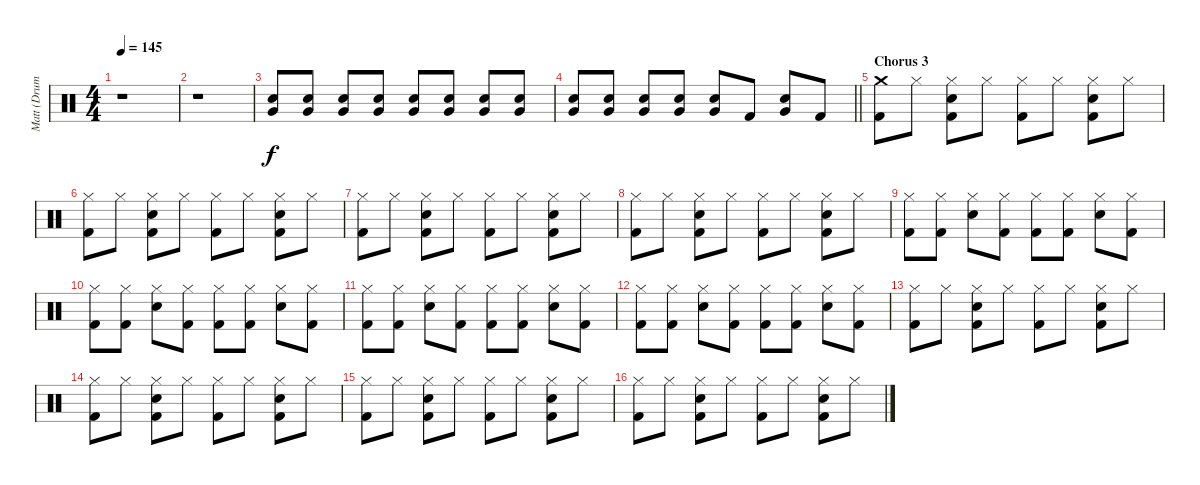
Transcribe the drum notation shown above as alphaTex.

\track ("Matt (Drums)" "Matt (Drum") {instrument percussion}
\staff {score}
\articulation defaults
\ts (4 4)
\tempo 145
\clef neutral
\ks c
r.1{dy f} |
r.1{volume 2} |
("Very Low Tom (hit)" "Electric Snare (hit)").8{volume 13} ("Very Low Tom (hit)" "Electric Snare (hit)").8 ("Very Low Tom (hit)" "Electric Snare (hit)").8 ("Very Low Tom (hit)" "Electric Snare (hit)").8 ("Very Low Tom (hit)" "Electric Snare (hit)").8 ("Very Low Tom (hit)" "Electric Snare (hit)").8 ("Very Low Tom (hit)" "Electric Snare (hit)").8 ("Very Low Tom (hit)" "Electric Snare (hit)").8 |
\barLineRight lightlight
("Very Low Tom (hit)" "Electric Snare (hit)").8 ("Very Low Tom (hit)" "Electric Snare (hit)").8 ("Very Low Tom (hit)" "Electric Snare (hit)").8 ("Very Low Tom (hit)" "Electric Snare (hit)").8 ("Very Low Tom (hit)" "Electric Snare (hit)").8 "Kick (hit) 2".8 ("Very Low Tom (hit)" "Electric Snare (hit)").8 "Kick (hit) 2".8 |
\section ("" "Chorus 3")
("Crash medium (hit)" "Kick (hit) 2").8 "Hi-Hat (closed)".8 ("Hi-Hat (closed)" "Electric Snare (hit)" "Kick (hit) 2").8 "Hi-Hat (closed)".8 ("Hi-Hat (closed)" "Kick (hit) 2").8 "Hi-Hat (closed)".8 ("Hi-Hat (closed)" "Electric Snare (hit)" "Kick (hit) 2").8 "Hi-Hat (closed)".8 |
("Hi-Hat (closed)" "Kick (hit) 2").8 "Hi-Hat (closed)".8 ("Hi-Hat (closed)" "Electric Snare (hit)" "Kick (hit) 2").8 "Hi-Hat (closed)".8 ("Hi-Hat (closed)" "Kick (hit) 2").8 "Hi-Hat (closed)".8 ("Hi-Hat (closed)" "Electric Snare (hit)" "Kick (hit) 2").8 "Hi-Hat (closed)".8 |
("Hi-Hat (closed)" "Kick (hit) 2").8 "Hi-Hat (closed)".8 ("Hi-Hat (closed)" "Electric Snare (hit)" "Kick (hit) 2").8 "Hi-Hat (closed)".8 ("Hi-Hat (closed)" "Kick (hit) 2").8 "Hi-Hat (closed)".8 ("Hi-Hat (closed)" "Electric Snare (hit)" "Kick (hit) 2").8 "Hi-Hat (closed)".8 |
("Hi-Hat (closed)" "Kick (hit) 2").8 "Hi-Hat (closed)".8 ("Hi-Hat (closed)" "Electric Snare (hit)" "Kick (hit) 2").8 "Hi-Hat (closed)".8 ("Hi-Hat (closed)" "Kick (hit) 2").8 "Hi-Hat (closed)".8 ("Hi-Hat (closed)" "Electric Snare (hit)" "Kick (hit) 2").8 "Hi-Hat (closed)".8 |
("Hi-Hat (closed)" "Kick (hit) 2").8 ("Hi-Hat (closed)" "Kick (hit) 2").8 ("Hi-Hat (closed)" "Electric Snare (hit)").8 ("Hi-Hat (closed)" "Kick (hit) 2").8 ("Hi-Hat (closed)" "Kick (hit) 2").8 ("Hi-Hat (closed)" "Kick (hit) 2").8 ("Hi-Hat (closed)" "Electric Snare (hit)").8 ("Hi-Hat (closed)" "Kick (hit) 2").8 |
("Hi-Hat (closed)" "Kick (hit) 2").8 ("Hi-Hat (closed)" "Kick (hit) 2").8 ("Hi-Hat (closed)" "Electric Snare (hit)").8 ("Hi-Hat (closed)" "Kick (hit) 2").8 ("Hi-Hat (closed)" "Kick (hit) 2").8 ("Hi-Hat (closed)" "Kick (hit) 2").8 ("Hi-Hat (closed)" "Electric Snare (hit)").8 ("Hi-Hat (closed)" "Kick (hit) 2").8 |
("Hi-Hat (closed)" "Kick (hit) 2").8 ("Hi-Hat (closed)" "Kick (hit) 2").8 ("Hi-Hat (closed)" "Electric Snare (hit)").8 ("Hi-Hat (closed)" "Kick (hit) 2").8 ("Hi-Hat (closed)" "Kick (hit) 2").8 ("Hi-Hat (closed)" "Kick (hit) 2").8 ("Hi-Hat (closed)" "Electric Snare (hit)").8 ("Hi-Hat (closed)" "Kick (hit) 2").8 |
("Hi-Hat (closed)" "Kick (hit) 2").8 ("Hi-Hat (closed)" "Kick (hit) 2").8 ("Hi-Hat (closed)" "Electric Snare (hit)").8 ("Hi-Hat (closed)" "Kick (hit) 2").8 ("Hi-Hat (closed)" "Kick (hit) 2").8 ("Hi-Hat (closed)" "Kick (hit) 2").8 ("Hi-Hat (closed)" "Electric Snare (hit)").8 ("Hi-Hat (closed)" "Kick (hit) 2").8 |
("Hi-Hat (closed)" "Kick (hit) 2").8 "Hi-Hat (closed)".8 ("Hi-Hat (closed)" "Electric Snare (hit)" "Kick (hit) 2").8 "Hi-Hat (closed)".8 ("Hi-Hat (closed)" "Kick (hit) 2").8 "Hi-Hat (closed)".8 ("Hi-Hat (closed)" "Electric Snare (hit)" "Kick (hit) 2").8 "Hi-Hat (closed)".8 |
("Hi-Hat (closed)" "Kick (hit) 2").8 "Hi-Hat (closed)".8 ("Hi-Hat (closed)" "Electric Snare (hit)" "Kick (hit) 2").8 "Hi-Hat (closed)".8 ("Hi-Hat (closed)" "Kick (hit) 2").8 "Hi-Hat (closed)".8 ("Hi-Hat (closed)" "Electric Snare (hit)" "Kick (hit) 2").8 "Hi-Hat (closed)".8 |
("Hi-Hat (closed)" "Kick (hit) 2").8 "Hi-Hat (closed)".8 ("Hi-Hat (closed)" "Electric Snare (hit)" "Kick (hit) 2").8 "Hi-Hat (closed)".8 ("Hi-Hat (closed)" "Kick (hit) 2").8 "Hi-Hat (closed)".8 ("Hi-Hat (closed)" "Electric Snare (hit)" "Kick (hit) 2").8 "Hi-Hat (closed)".8 |
("Hi-Hat (closed)" "Kick (hit) 2").8 "Hi-Hat (closed)".8 ("Hi-Hat (closed)" "Electric Snare (hit)" "Kick (hit) 2").8 "Hi-Hat (closed)".8 ("Hi-Hat (closed)" "Kick (hit) 2").8 "Hi-Hat (closed)".8 ("Hi-Hat (closed)" "Electric Snare (hit)" "Kick (hit) 2").8 "Hi-Hat (closed)".8
